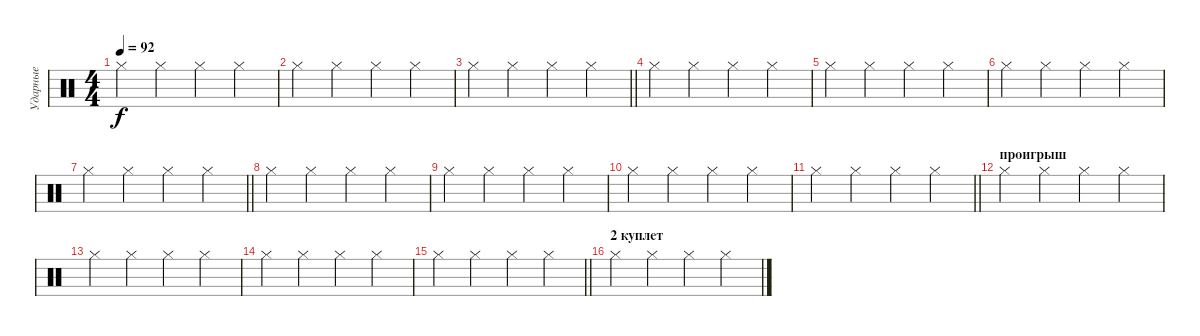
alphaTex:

\track ("Ударные" "Ударные") {instrument percussion}
\staff {score}
\articulation defaults
\ts (4 4)
\tempo 92
\clef neutral
\ks c "Hi-Hat (closed)".4{dy f} "Hi-Hat (closed)".4 "Hi-Hat (closed)".4 "Hi-Hat (closed)".4
|
"Hi-Hat (closed)".4 "Hi-Hat (closed)".4 "Hi-Hat (closed)".4 "Hi-Hat (closed)".4 |
\barLineRight lightlight "Hi-Hat (closed)".4 "Hi-Hat (closed)".4 "Hi-Hat (closed)".4 "Hi-Hat (closed)".4
|
"Hi-Hat (closed)".4 "Hi-Hat (closed)".4 "Hi-Hat (closed)".4 "Hi-Hat (closed)".4 |
"Hi-Hat (closed)".4 "Hi-Hat (closed)".4 "Hi-Hat (closed)".4 "Hi-Hat (closed)".4 |
"Hi-Hat (closed)".4 "Hi-Hat (closed)".4 "Hi-Hat (closed)".4 "Hi-Hat (closed)".4 |
\barLineRight lightlight "Hi-Hat (closed)".4 "Hi-Hat (closed)".4 "Hi-Hat (closed)".4 "Hi-Hat (closed)".4
|
"Hi-Hat (closed)".4 "Hi-Hat (closed)".4 "Hi-Hat (closed)".4 "Hi-Hat (closed)".4 |
"Hi-Hat (closed)".4 "Hi-Hat (closed)".4 "Hi-Hat (closed)".4 "Hi-Hat (closed)".4 |
"Hi-Hat (closed)".4 "Hi-Hat (closed)".4 "Hi-Hat (closed)".4 "Hi-Hat (closed)".4 |
\barLineRight lightlight "Hi-Hat (closed)".4 "Hi-Hat (closed)".4 "Hi-Hat (closed)".4 "Hi-Hat (closed)".4
|
\section ("" "проигрыш")
"Hi-Hat (closed)".4 "Hi-Hat (closed)".4 "Hi-Hat (closed)".4 "Hi-Hat (closed)".4 |
"Hi-Hat (closed)".4 "Hi-Hat (closed)".4 "Hi-Hat (closed)".4 "Hi-Hat (closed)".4 |
"Hi-Hat (closed)".4 "Hi-Hat (closed)".4 "Hi-Hat (closed)".4 "Hi-Hat (closed)".4 |
\barLineRight lightlight "Hi-Hat (closed)".4 "Hi-Hat (closed)".4 "Hi-Hat (closed)".4 "Hi-Hat (closed)".4
|
\section ("" "2 куплет")
"Hi-Hat (closed)".4 "Hi-Hat (closed)".4 "Hi-Hat (closed)".4 "Hi-Hat (closed)".4
